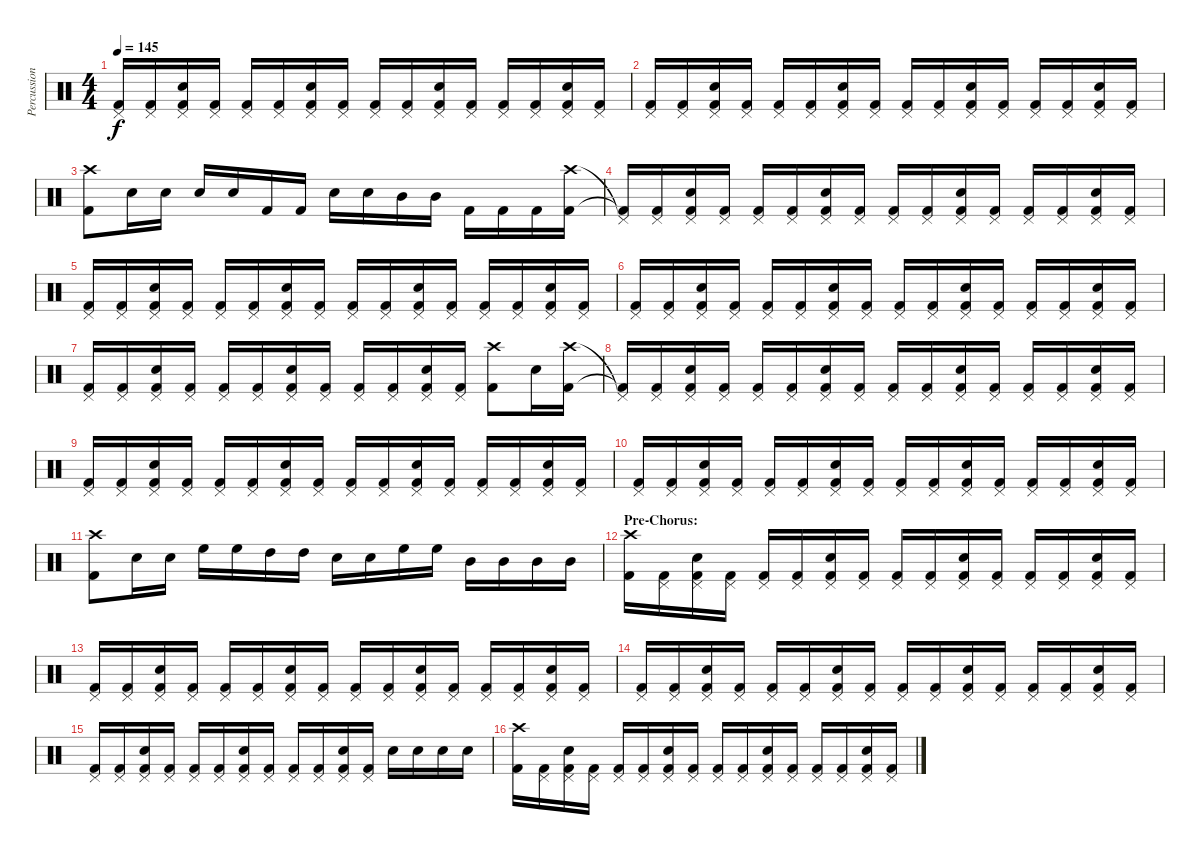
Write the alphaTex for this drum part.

\track ("Percussion" "Percussion") {instrument percussion}
\staff {score}
\articulation defaults
\ts (4 4)
\tempo 145
\clef neutral
\ks c
("Pedal Hi-Hat (hit)" "Kick (hit) 2").16{dy f} ("Pedal Hi-Hat (hit)" "Kick (hit) 2").16 ("Pedal Hi-Hat (hit)" "Snare (hit) 2" "Kick (hit) 2").16 ("Pedal Hi-Hat (hit)" "Kick (hit) 2").16 ("Pedal Hi-Hat (hit)" "Kick (hit) 2").16 ("Pedal Hi-Hat (hit)" "Kick (hit) 2").16 ("Pedal Hi-Hat (hit)" "Snare (hit) 2" "Kick (hit) 2").16 ("Pedal Hi-Hat (hit)" "Kick (hit) 2").16 ("Pedal Hi-Hat (hit)" "Kick (hit) 2").16 ("Pedal Hi-Hat (hit)" "Kick (hit) 2").16 ("Pedal Hi-Hat (hit)" "Snare (hit) 2" "Kick (hit) 2").16 ("Pedal Hi-Hat (hit)" "Kick (hit) 2").16 ("Pedal Hi-Hat (hit)" "Kick (hit) 2").16 ("Pedal Hi-Hat (hit)" "Kick (hit) 2").16 ("Pedal Hi-Hat (hit)" "Snare (hit) 2" "Kick (hit) 2").16 ("Pedal Hi-Hat (hit)" "Kick (hit) 2").16 |
("Pedal Hi-Hat (hit)" "Kick (hit) 2").16 ("Pedal Hi-Hat (hit)" "Kick (hit) 2").16 ("Pedal Hi-Hat (hit)" "Snare (hit) 2" "Kick (hit) 2").16 ("Pedal Hi-Hat (hit)" "Kick (hit) 2").16 ("Pedal Hi-Hat (hit)" "Kick (hit) 2").16 ("Pedal Hi-Hat (hit)" "Kick (hit) 2").16 ("Pedal Hi-Hat (hit)" "Snare (hit) 2" "Kick (hit) 2").16 ("Pedal Hi-Hat (hit)" "Kick (hit) 2").16 ("Pedal Hi-Hat (hit)" "Kick (hit) 2").16 ("Pedal Hi-Hat (hit)" "Kick (hit) 2").16 ("Pedal Hi-Hat (hit)" "Snare (hit) 2" "Kick (hit) 2").16 ("Pedal Hi-Hat (hit)" "Kick (hit) 2").16 ("Pedal Hi-Hat (hit)" "Kick (hit) 2").16 ("Pedal Hi-Hat (hit)" "Kick (hit) 2").16 ("Pedal Hi-Hat (hit)" "Snare (hit) 2" "Kick (hit) 2").16 ("Pedal Hi-Hat (hit)" "Kick (hit) 2").16 |
("Crash high (hit)" "Kick (hit) 2").8 "Snare (hit) 2".16 "Snare (hit) 2".16 "Snare (hit) 2".16 "Snare (hit) 2".16 "Kick (hit) 2".16 "Kick (hit) 2".16 "Snare (hit) 2".16 "Snare (hit) 2".16 "Mid Tom (hit)".16 "Mid Tom (hit)".16 "Kick (hit) 2".16 "Kick (hit) 2".16 "Kick (hit) 2".16 ("Crash high (hit)" "Kick (hit) 2").16 |
("Pedal Hi-Hat (hit)"{t} "Kick (hit) 2"{t}).16 ("Pedal Hi-Hat (hit)" "Kick (hit) 2").16 ("Pedal Hi-Hat (hit)" "Snare (hit) 2" "Kick (hit) 2").16 ("Pedal Hi-Hat (hit)" "Kick (hit) 2").16 ("Pedal Hi-Hat (hit)" "Kick (hit) 2").16 ("Pedal Hi-Hat (hit)" "Kick (hit) 2").16 ("Pedal Hi-Hat (hit)" "Snare (hit) 2" "Kick (hit) 2").16 ("Pedal Hi-Hat (hit)" "Kick (hit) 2").16 ("Pedal Hi-Hat (hit)" "Kick (hit) 2").16 ("Pedal Hi-Hat (hit)" "Kick (hit) 2").16 ("Pedal Hi-Hat (hit)" "Snare (hit) 2" "Kick (hit) 2").16 ("Pedal Hi-Hat (hit)" "Kick (hit) 2").16 ("Pedal Hi-Hat (hit)" "Kick (hit) 2").16 ("Pedal Hi-Hat (hit)" "Kick (hit) 2").16 ("Pedal Hi-Hat (hit)" "Snare (hit) 2" "Kick (hit) 2").16 ("Pedal Hi-Hat (hit)" "Kick (hit) 2").16 |
("Pedal Hi-Hat (hit)" "Kick (hit) 2").16 ("Pedal Hi-Hat (hit)" "Kick (hit) 2").16 ("Pedal Hi-Hat (hit)" "Snare (hit) 2" "Kick (hit) 2").16 ("Pedal Hi-Hat (hit)" "Kick (hit) 2").16 ("Pedal Hi-Hat (hit)" "Kick (hit) 2").16 ("Pedal Hi-Hat (hit)" "Kick (hit) 2").16 ("Pedal Hi-Hat (hit)" "Snare (hit) 2" "Kick (hit) 2").16 ("Pedal Hi-Hat (hit)" "Kick (hit) 2").16 ("Pedal Hi-Hat (hit)" "Kick (hit) 2").16 ("Pedal Hi-Hat (hit)" "Kick (hit) 2").16 ("Pedal Hi-Hat (hit)" "Snare (hit) 2" "Kick (hit) 2").16 ("Pedal Hi-Hat (hit)" "Kick (hit) 2").16 ("Pedal Hi-Hat (hit)" "Kick (hit) 2").16 ("Pedal Hi-Hat (hit)" "Kick (hit) 2").16 ("Pedal Hi-Hat (hit)" "Snare (hit) 2" "Kick (hit) 2").16 ("Pedal Hi-Hat (hit)" "Kick (hit) 2").16 |
("Pedal Hi-Hat (hit)" "Kick (hit) 2").16 ("Pedal Hi-Hat (hit)" "Kick (hit) 2").16 ("Pedal Hi-Hat (hit)" "Snare (hit) 2" "Kick (hit) 2").16 ("Pedal Hi-Hat (hit)" "Kick (hit) 2").16 ("Pedal Hi-Hat (hit)" "Kick (hit) 2").16 ("Pedal Hi-Hat (hit)" "Kick (hit) 2").16 ("Pedal Hi-Hat (hit)" "Snare (hit) 2" "Kick (hit) 2").16 ("Pedal Hi-Hat (hit)" "Kick (hit) 2").16 ("Pedal Hi-Hat (hit)" "Kick (hit) 2").16 ("Pedal Hi-Hat (hit)" "Kick (hit) 2").16 ("Pedal Hi-Hat (hit)" "Snare (hit) 2" "Kick (hit) 2").16 ("Pedal Hi-Hat (hit)" "Kick (hit) 2").16 ("Pedal Hi-Hat (hit)" "Kick (hit) 2").16 ("Pedal Hi-Hat (hit)" "Kick (hit) 2").16 ("Pedal Hi-Hat (hit)" "Snare (hit) 2" "Kick (hit) 2").16 ("Pedal Hi-Hat (hit)" "Kick (hit) 2").16 |
("Pedal Hi-Hat (hit)" "Kick (hit) 2").16 ("Pedal Hi-Hat (hit)" "Kick (hit) 2").16 ("Pedal Hi-Hat (hit)" "Snare (hit) 2" "Kick (hit) 2").16 ("Pedal Hi-Hat (hit)" "Kick (hit) 2").16 ("Pedal Hi-Hat (hit)" "Kick (hit) 2").16 ("Pedal Hi-Hat (hit)" "Kick (hit) 2").16 ("Pedal Hi-Hat (hit)" "Snare (hit) 2" "Kick (hit) 2").16 ("Pedal Hi-Hat (hit)" "Kick (hit) 2").16 ("Pedal Hi-Hat (hit)" "Kick (hit) 2").16 ("Pedal Hi-Hat (hit)" "Kick (hit) 2").16 ("Pedal Hi-Hat (hit)" "Snare (hit) 2" "Kick (hit) 2").16 ("Pedal Hi-Hat (hit)" "Kick (hit) 2").16 ("Crash high (hit)" "Kick (hit) 2").8 "Snare (hit) 2".16 ("Crash high (hit)" "Kick (hit) 2").16 |
("Pedal Hi-Hat (hit)"{t} "Kick (hit) 2"{t}).16 ("Pedal Hi-Hat (hit)" "Kick (hit) 2").16 ("Pedal Hi-Hat (hit)" "Snare (hit) 2" "Kick (hit) 2").16 ("Pedal Hi-Hat (hit)" "Kick (hit) 2").16 ("Pedal Hi-Hat (hit)" "Kick (hit) 2").16 ("Pedal Hi-Hat (hit)" "Kick (hit) 2").16 ("Pedal Hi-Hat (hit)" "Snare (hit) 2" "Kick (hit) 2").16 ("Pedal Hi-Hat (hit)" "Kick (hit) 2").16 ("Pedal Hi-Hat (hit)" "Kick (hit) 2").16 ("Pedal Hi-Hat (hit)" "Kick (hit) 2").16 ("Pedal Hi-Hat (hit)" "Snare (hit) 2" "Kick (hit) 2").16 ("Pedal Hi-Hat (hit)" "Kick (hit) 2").16 ("Pedal Hi-Hat (hit)" "Kick (hit) 2").16 ("Pedal Hi-Hat (hit)" "Kick (hit) 2").16 ("Pedal Hi-Hat (hit)" "Snare (hit) 2" "Kick (hit) 2").16 ("Pedal Hi-Hat (hit)" "Kick (hit) 2").16 |
("Pedal Hi-Hat (hit)" "Kick (hit) 2").16 ("Pedal Hi-Hat (hit)" "Kick (hit) 2").16 ("Pedal Hi-Hat (hit)" "Snare (hit) 2" "Kick (hit) 2").16 ("Pedal Hi-Hat (hit)" "Kick (hit) 2").16 ("Pedal Hi-Hat (hit)" "Kick (hit) 2").16 ("Pedal Hi-Hat (hit)" "Kick (hit) 2").16 ("Pedal Hi-Hat (hit)" "Snare (hit) 2" "Kick (hit) 2").16 ("Pedal Hi-Hat (hit)" "Kick (hit) 2").16 ("Pedal Hi-Hat (hit)" "Kick (hit) 2").16 ("Pedal Hi-Hat (hit)" "Kick (hit) 2").16 ("Pedal Hi-Hat (hit)" "Snare (hit) 2" "Kick (hit) 2").16 ("Pedal Hi-Hat (hit)" "Kick (hit) 2").16 ("Pedal Hi-Hat (hit)" "Kick (hit) 2").16 ("Pedal Hi-Hat (hit)" "Kick (hit) 2").16 ("Pedal Hi-Hat (hit)" "Snare (hit) 2" "Kick (hit) 2").16 ("Pedal Hi-Hat (hit)" "Kick (hit) 2").16 |
("Pedal Hi-Hat (hit)" "Kick (hit) 2").16 ("Pedal Hi-Hat (hit)" "Kick (hit) 2").16 ("Pedal Hi-Hat (hit)" "Snare (hit) 2" "Kick (hit) 2").16 ("Pedal Hi-Hat (hit)" "Kick (hit) 2").16 ("Pedal Hi-Hat (hit)" "Kick (hit) 2").16 ("Pedal Hi-Hat (hit)" "Kick (hit) 2").16 ("Pedal Hi-Hat (hit)" "Snare (hit) 2" "Kick (hit) 2").16 ("Pedal Hi-Hat (hit)" "Kick (hit) 2").16 ("Pedal Hi-Hat (hit)" "Kick (hit) 2").16 ("Pedal Hi-Hat (hit)" "Kick (hit) 2").16 ("Pedal Hi-Hat (hit)" "Snare (hit) 2" "Kick (hit) 2").16 ("Pedal Hi-Hat (hit)" "Kick (hit) 2").16 ("Pedal Hi-Hat (hit)" "Kick (hit) 2").16 ("Pedal Hi-Hat (hit)" "Kick (hit) 2").16 ("Pedal Hi-Hat (hit)" "Snare (hit) 2" "Kick (hit) 2").16 ("Pedal Hi-Hat (hit)" "Kick (hit) 2").16 |
("Crash high (hit)" "Kick (hit) 2").8 "Snare (hit) 2".16 "Snare (hit) 2".16 "High Floor Tom (hit)".16 "High Floor Tom (hit)".16 "High Tom (hit)".16 "High Tom (hit)".16 "Snare (hit) 2".16 "Snare (hit) 2".16 "High Floor Tom (hit)".16 "High Floor Tom (hit)".16 "Mid Tom (hit)".16 "Mid Tom (hit)".16 "Mid Tom (hit)".16 "Mid Tom (hit)".16 |
\section ("" "Pre-Chorus:")
("Crash high (hit)" "Kick (hit) 2").16 ("Pedal Hi-Hat (hit)" "Kick (hit) 2").16 ("Pedal Hi-Hat (hit)" "Snare (hit) 2" "Kick (hit) 2").16 ("Pedal Hi-Hat (hit)" "Kick (hit) 2").16 ("Pedal Hi-Hat (hit)" "Kick (hit) 2").16 ("Pedal Hi-Hat (hit)" "Kick (hit) 2").16 ("Pedal Hi-Hat (hit)" "Snare (hit) 2" "Kick (hit) 2").16 ("Pedal Hi-Hat (hit)" "Kick (hit) 2").16 ("Pedal Hi-Hat (hit)" "Kick (hit) 2").16 ("Pedal Hi-Hat (hit)" "Kick (hit) 2").16 ("Pedal Hi-Hat (hit)" "Snare (hit) 2" "Kick (hit) 2").16 ("Pedal Hi-Hat (hit)" "Kick (hit) 2").16 ("Pedal Hi-Hat (hit)" "Kick (hit) 2").16 ("Pedal Hi-Hat (hit)" "Kick (hit) 2").16 ("Pedal Hi-Hat (hit)" "Snare (hit) 2" "Kick (hit) 2").16 ("Pedal Hi-Hat (hit)" "Kick (hit) 2").16 |
("Pedal Hi-Hat (hit)" "Kick (hit) 2").16 ("Pedal Hi-Hat (hit)" "Kick (hit) 2").16 ("Pedal Hi-Hat (hit)" "Snare (hit) 2" "Kick (hit) 2").16 ("Pedal Hi-Hat (hit)" "Kick (hit) 2").16 ("Pedal Hi-Hat (hit)" "Kick (hit) 2").16 ("Pedal Hi-Hat (hit)" "Kick (hit) 2").16 ("Pedal Hi-Hat (hit)" "Snare (hit) 2" "Kick (hit) 2").16 ("Pedal Hi-Hat (hit)" "Kick (hit) 2").16 ("Pedal Hi-Hat (hit)" "Kick (hit) 2").16 ("Pedal Hi-Hat (hit)" "Kick (hit) 2").16 ("Pedal Hi-Hat (hit)" "Snare (hit) 2" "Kick (hit) 2").16 ("Pedal Hi-Hat (hit)" "Kick (hit) 2").16 ("Pedal Hi-Hat (hit)" "Kick (hit) 2").16 ("Pedal Hi-Hat (hit)" "Kick (hit) 2").16 ("Pedal Hi-Hat (hit)" "Snare (hit) 2" "Kick (hit) 2").16 ("Pedal Hi-Hat (hit)" "Kick (hit) 2").16 |
("Pedal Hi-Hat (hit)" "Kick (hit) 2").16 ("Pedal Hi-Hat (hit)" "Kick (hit) 2").16 ("Pedal Hi-Hat (hit)" "Snare (hit) 2" "Kick (hit) 2").16 ("Pedal Hi-Hat (hit)" "Kick (hit) 2").16 ("Pedal Hi-Hat (hit)" "Kick (hit) 2").16 ("Pedal Hi-Hat (hit)" "Kick (hit) 2").16 ("Pedal Hi-Hat (hit)" "Snare (hit) 2" "Kick (hit) 2").16 ("Pedal Hi-Hat (hit)" "Kick (hit) 2").16 ("Pedal Hi-Hat (hit)" "Kick (hit) 2").16 ("Pedal Hi-Hat (hit)" "Kick (hit) 2").16 ("Pedal Hi-Hat (hit)" "Snare (hit) 2" "Kick (hit) 2").16 ("Pedal Hi-Hat (hit)" "Kick (hit) 2").16 ("Pedal Hi-Hat (hit)" "Kick (hit) 2").16 ("Pedal Hi-Hat (hit)" "Kick (hit) 2").16 ("Pedal Hi-Hat (hit)" "Snare (hit) 2" "Kick (hit) 2").16 ("Pedal Hi-Hat (hit)" "Kick (hit) 2").16 |
("Pedal Hi-Hat (hit)" "Kick (hit) 2").16 ("Pedal Hi-Hat (hit)" "Kick (hit) 2").16 ("Pedal Hi-Hat (hit)" "Snare (hit) 2" "Kick (hit) 2").16 ("Pedal Hi-Hat (hit)" "Kick (hit) 2").16 ("Pedal Hi-Hat (hit)" "Kick (hit) 2").16 ("Pedal Hi-Hat (hit)" "Kick (hit) 2").16 ("Pedal Hi-Hat (hit)" "Snare (hit) 2" "Kick (hit) 2").16 ("Pedal Hi-Hat (hit)" "Kick (hit) 2").16 ("Pedal Hi-Hat (hit)" "Kick (hit) 2").16 ("Pedal Hi-Hat (hit)" "Kick (hit) 2").16 ("Pedal Hi-Hat (hit)" "Snare (hit) 2" "Kick (hit) 2").16 ("Pedal Hi-Hat (hit)" "Kick (hit) 2").16 "Snare (hit) 2".16 "Snare (hit) 2".16 "Snare (hit) 2".16 "Snare (hit) 2".16 |
("Crash high (hit)" "Kick (hit) 2").16 ("Pedal Hi-Hat (hit)" "Kick (hit) 2").16 ("Pedal Hi-Hat (hit)" "Snare (hit) 2" "Kick (hit) 2").16 ("Pedal Hi-Hat (hit)" "Kick (hit) 2").16 ("Pedal Hi-Hat (hit)" "Kick (hit) 2").16 ("Pedal Hi-Hat (hit)" "Kick (hit) 2").16 ("Pedal Hi-Hat (hit)" "Snare (hit) 2" "Kick (hit) 2").16 ("Pedal Hi-Hat (hit)" "Kick (hit) 2").16 ("Pedal Hi-Hat (hit)" "Kick (hit) 2").16 ("Pedal Hi-Hat (hit)" "Kick (hit) 2").16 ("Pedal Hi-Hat (hit)" "Snare (hit) 2" "Kick (hit) 2").16 ("Pedal Hi-Hat (hit)" "Kick (hit) 2").16 ("Pedal Hi-Hat (hit)" "Kick (hit) 2").16 ("Pedal Hi-Hat (hit)" "Kick (hit) 2").16 ("Pedal Hi-Hat (hit)" "Snare (hit) 2" "Kick (hit) 2").16 ("Pedal Hi-Hat (hit)" "Kick (hit) 2").16
